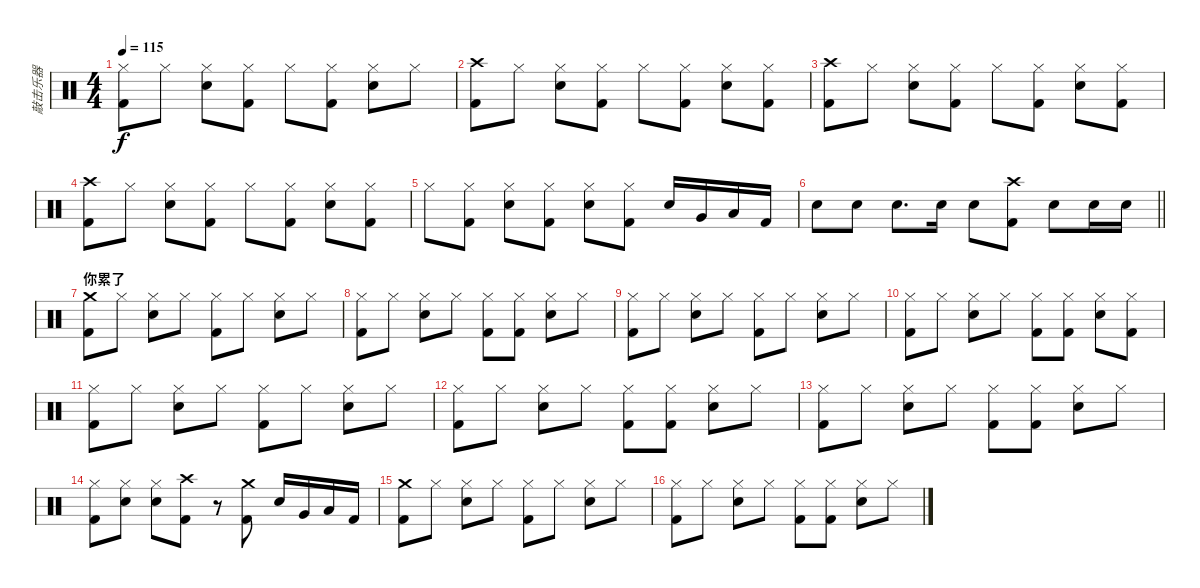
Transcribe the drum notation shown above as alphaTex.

\track ("敲击乐器" "敲击乐器") {instrument percussion}
\staff {score}
\articulation defaults
\ts (4 4)
\tempo 115
\clef neutral
\ks c
("Hi-Hat (closed)" "Kick (hit) 2").8{dy f} "Hi-Hat (closed)".8 ("Electric Snare (hit)" "Hi-Hat (closed)").8 ("Kick (hit) 2" "Hi-Hat (closed)").8 "Hi-Hat (closed)".8 ("Kick (hit) 2" "Hi-Hat (closed)").8 ("Electric Snare (hit)" "Hi-Hat (closed)").8 "Hi-Hat (closed)".8 |
("Crash high (hit)" "Kick (hit) 2").8 "Hi-Hat (closed)".8 ("Electric Snare (hit)" "Hi-Hat (closed)").8 ("Kick (hit) 2" "Hi-Hat (closed)").8 "Hi-Hat (closed)".8 ("Kick (hit) 2" "Hi-Hat (closed)").8 ("Electric Snare (hit)" "Hi-Hat (closed)").8 ("Kick (hit) 2" "Hi-Hat (closed)").8 |
("Crash high (hit)" "Kick (hit) 2").8 "Hi-Hat (closed)".8 ("Electric Snare (hit)" "Hi-Hat (closed)").8 ("Kick (hit) 2" "Hi-Hat (closed)").8 "Hi-Hat (closed)".8 ("Kick (hit) 2" "Hi-Hat (closed)").8 ("Electric Snare (hit)" "Hi-Hat (closed)").8 ("Kick (hit) 2" "Hi-Hat (closed)").8 |
("Crash high (hit)" "Kick (hit) 2").8 "Hi-Hat (closed)".8 ("Electric Snare (hit)" "Hi-Hat (closed)").8 ("Kick (hit) 2" "Hi-Hat (closed)").8 "Hi-Hat (closed)".8 ("Kick (hit) 2" "Hi-Hat (closed)").8 ("Electric Snare (hit)" "Hi-Hat (closed)").8 ("Kick (hit) 2" "Hi-Hat (closed)").8 |
"Hi-Hat (closed)".8 ("Hi-Hat (closed)" "Kick (hit) 2").8 ("Electric Snare (hit)" "Hi-Hat (closed)").8 ("Kick (hit) 2" "Hi-Hat (closed)").8 ("Electric Snare (hit)" "Hi-Hat (closed)").8 ("Kick (hit) 2" "Hi-Hat (closed)").8 "Electric Snare (hit)".16 "Very Low Tom (hit)".16 "Low Floor Tom (hit)".16 "Kick (hit) 2".16 |
\barLineRight lightlight "Electric Snare (hit)".8 "Electric Snare (hit)".8 "Electric Snare (hit)".8{d} "Electric Snare (hit)".16 "Electric Snare (hit)".8
("Crash high (hit)" "Kick (hit) 2").8 "Electric Snare (hit)".8 "Electric Snare (hit)".16 "Electric Snare (hit)".16 |
\section ("" "你累了")
("Crash medium (hit)" "Kick (hit) 2").8 "Hi-Hat (closed)".8 ("Electric Snare (hit)" "Hi-Hat (closed)").8 "Hi-Hat (closed)".8 ("Kick (hit) 2" "Hi-Hat (closed)").8 "Hi-Hat (closed)".8 ("Electric Snare (hit)" "Hi-Hat (closed)").8 "Hi-Hat (closed)".8 |
("Hi-Hat (closed)" "Kick (hit) 2").8 "Hi-Hat (closed)".8 ("Hi-Hat (closed)" "Electric Snare (hit)").8 "Hi-Hat (closed)".8 ("Hi-Hat (closed)" "Kick (hit) 2").8 ("Hi-Hat (closed)" "Kick (hit) 2").8 ("Hi-Hat (closed)" "Electric Snare (hit)").8 "Hi-Hat (closed)".8 |
("Hi-Hat (closed)" "Kick (hit) 2").8 "Hi-Hat (closed)".8 ("Electric Snare (hit)" "Hi-Hat (closed)").8 "Hi-Hat (closed)".8 ("Kick (hit) 2" "Hi-Hat (closed)").8 "Hi-Hat (closed)".8 ("Electric Snare (hit)" "Hi-Hat (closed)").8 "Hi-Hat (closed)".8 |
("Hi-Hat (closed)" "Kick (hit) 2").8 "Hi-Hat (closed)".8 ("Hi-Hat (closed)" "Electric Snare (hit)").8 "Hi-Hat (closed)".8 ("Hi-Hat (closed)" "Kick (hit) 2").8 ("Hi-Hat (closed)" "Kick (hit) 2").8 ("Hi-Hat (closed)" "Electric Snare (hit)").8 ("Hi-Hat (closed)" "Kick (hit) 2").8 |
("Hi-Hat (closed)" "Kick (hit) 2").8 "Hi-Hat (closed)".8 ("Electric Snare (hit)" "Hi-Hat (closed)").8 "Hi-Hat (closed)".8 ("Kick (hit) 2" "Hi-Hat (closed)").8 "Hi-Hat (closed)".8 ("Electric Snare (hit)" "Hi-Hat (closed)").8 "Hi-Hat (closed)".8 |
("Hi-Hat (closed)" "Kick (hit) 2").8 "Hi-Hat (closed)".8 ("Hi-Hat (closed)" "Electric Snare (hit)").8 "Hi-Hat (closed)".8 ("Hi-Hat (closed)" "Kick (hit) 2").8 ("Hi-Hat (closed)" "Kick (hit) 2").8 ("Hi-Hat (closed)" "Electric Snare (hit)").8 "Hi-Hat (closed)".8 |
("Hi-Hat (closed)" "Kick (hit) 2").8 "Hi-Hat (closed)".8 ("Electric Snare (hit)" "Hi-Hat (closed)").8 "Hi-Hat (closed)".8 ("Kick (hit) 2" "Hi-Hat (closed)").8 ("Kick (hit) 2" "Hi-Hat (closed)").8 ("Electric Snare (hit)" "Hi-Hat (closed)").8 "Hi-Hat (closed)".8 |
("Hi-Hat (closed)" "Kick (hit) 2").8 ("Hi-Hat (closed)" "Electric Snare (hit)").8 ("Hi-Hat (closed)" "Electric Snare (hit)").8 ("Crash high (hit)" "Kick (hit) 2").8 r.8 ("Crash medium (hit)" "Kick (hit) 2").8 "Electric Snare (hit)".16 "Very Low Tom (hit)".16 "Low Floor Tom (hit)".16 "Kick (hit) 2".16 |
("Crash medium (hit)" "Kick (hit) 2").8 "Hi-Hat (closed)".8 ("Electric Snare (hit)" "Hi-Hat (closed)").8 "Hi-Hat (closed)".8 ("Kick (hit) 2" "Hi-Hat (closed)").8 "Hi-Hat (closed)".8 ("Electric Snare (hit)" "Hi-Hat (closed)").8 "Hi-Hat (closed)".8 |
("Hi-Hat (closed)" "Kick (hit) 2").8 "Hi-Hat (closed)".8 ("Hi-Hat (closed)" "Electric Snare (hit)").8 "Hi-Hat (closed)".8 ("Hi-Hat (closed)" "Kick (hit) 2").8 ("Hi-Hat (closed)" "Kick (hit) 2").8 ("Hi-Hat (closed)" "Electric Snare (hit)").8 "Hi-Hat (closed)".8
